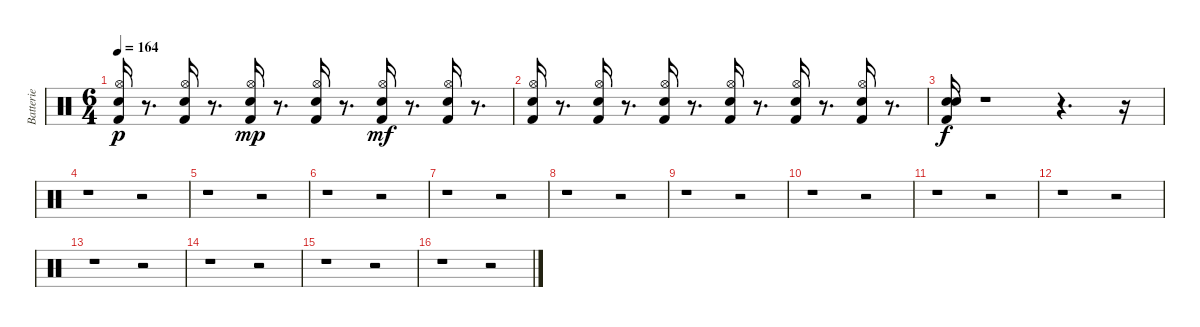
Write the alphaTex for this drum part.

\track ("Batterie" "Batterie") {instrument percussion}
\staff {score}
\articulation defaults
\ts (6 4)
\tempo 164
\clef neutral
\ks c
("Kick (hit) 2" "Hi-Hat (open)" "Electric Snare (hit)").16{dy p} r.8{d} ("Kick (hit) 2" "Hi-Hat (open)" "Electric Snare (hit)").16 r.8{d} ("Kick (hit) 2" "Hi-Hat (open)" "Electric Snare (hit)").16{dy mp} r.8{d} ("Kick (hit) 2" "Hi-Hat (open)" "Electric Snare (hit)").16 r.8{d} ("Kick (hit) 2" "Hi-Hat (open)" "Electric Snare (hit)").16{dy mf} r.8{d} ("Kick (hit) 2" "Hi-Hat (open)" "Electric Snare (hit)").16 r.8{d} |
("Kick (hit) 2" "Hi-Hat (open)" "Electric Snare (hit)").16 r.8{d} ("Kick (hit) 2" "Hi-Hat (open)" "Electric Snare (hit)").16 r.8{d} ("Kick (hit) 2" "Hi-Hat (open)" "Electric Snare (hit)").16 r.8{d} ("Kick (hit) 2" "Hi-Hat (open)" "Electric Snare (hit)").16 r.8{d} ("Kick (hit) 2" "Hi-Hat (open)" "Electric Snare (hit)").16 r.8{d} ("Kick (hit) 2" "Hi-Hat (open)" "Electric Snare (hit)").16 r.8{d} |
("Electric Snare (hit)" "Kick (hit) 2" "Electric Snare (hit)").16{dy f} r.1 r.4{d} r.16 |
r.1 r.2 |
r.1 r.2 |
r.1 r.2 |
r.1 r.2 |
r.1 r.2 |
r.1 r.2 |
r.1 r.2 |
r.1 r.2 |
r.1 r.2 |
r.1 r.2 |
r.1 r.2 |
r.1 r.2 |
r.1 r.2
